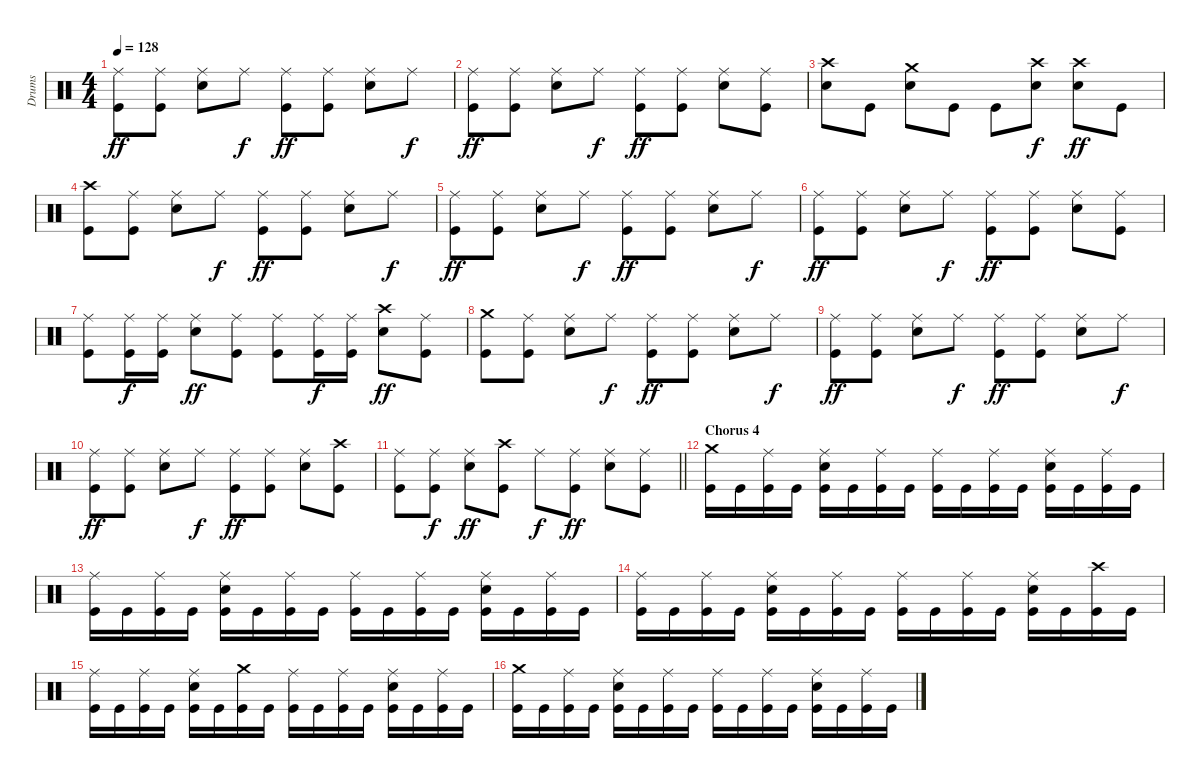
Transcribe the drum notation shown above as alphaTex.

\track ("Drums" "Drums") {instrument percussion}
\staff {score}
\articulation defaults
\ts (4 4)
\tempo 128
\clef neutral
\ks c
("Ride (middle)" "Kick (hit)").8{dy ff} ("Ride (middle)" "Kick (hit)").8 ("Ride (middle)" "Electric Snare (hit)").8 "Ride (middle)".8{dy f} ("Ride (middle)" "Kick (hit)").8{dy ff} ("Ride (middle)" "Kick (hit)").8 ("Ride (middle)" "Electric Snare (hit)").8 "Ride (middle)".8{dy f} |
("Ride (middle)" "Kick (hit)").8{dy ff} ("Ride (middle)" "Kick (hit)").8 ("Ride (middle)" "Electric Snare (hit)").8 "Ride (middle)".8{dy f} ("Ride (middle)" "Kick (hit)").8{dy ff} ("Ride (middle)" "Kick (hit)").8 ("Ride (middle)" "Electric Snare (hit)").8 ("Ride (middle)" "Kick (hit)").8 |
("Crash high (hit)" "Electric Snare (hit)").8 "Kick (hit)".8 ("Crash medium (hit)" "Electric Snare (hit)").8 "Kick (hit)".8 "Kick (hit)".8 ("Crash high (hit)" "Electric Snare (hit)").8{dy f} ("Crash high (hit)" "Electric Snare (hit)").8{dy ff} "Kick (hit)".8 |
("Crash high (hit)" "Kick (hit)").8 ("Ride (middle)" "Kick (hit)").8 ("Ride (middle)" "Electric Snare (hit)").8 "Ride (middle)".8{dy f} ("Ride (middle)" "Kick (hit)").8{dy ff} ("Ride (middle)" "Kick (hit)").8 ("Ride (middle)" "Electric Snare (hit)").8 "Ride (middle)".8{dy f} |
("Ride (middle)" "Kick (hit)").8{dy ff} ("Ride (middle)" "Kick (hit)").8 ("Ride (middle)" "Electric Snare (hit)").8 "Ride (middle)".8{dy f} ("Ride (middle)" "Kick (hit)").8{dy ff} ("Ride (middle)" "Kick (hit)").8 ("Ride (middle)" "Electric Snare (hit)").8 "Ride (middle)".8{dy f} |
("Ride (middle)" "Kick (hit)").8{dy ff} ("Ride (middle)" "Kick (hit)").8 ("Ride (middle)" "Electric Snare (hit)").8 "Ride (middle)".8{dy f} ("Ride (middle)" "Kick (hit)").8{dy ff} ("Ride (middle)" "Kick (hit)").8 ("Ride (middle)" "Electric Snare (hit)").8 ("Ride (middle)" "Kick (hit)").8 |
("Ride (middle)" "Kick (hit)").8 ("Ride (middle)" "Kick (hit)").16{dy f} ("Ride (middle)" "Kick (hit)").16 ("Ride (middle)" "Electric Snare (hit)").8{dy ff} ("Ride (middle)" "Kick (hit)").8 ("Ride (middle)" "Kick (hit)").8 ("Ride (middle)" "Kick (hit)").16{dy f} ("Ride (middle)" "Kick (hit)").16 ("Crash high (hit)" "Electric Snare (hit)").8{dy ff} ("Ride (middle)" "Kick (hit)").8 |
("Crash medium (hit)" "Kick (hit)").8 ("Ride (middle)" "Kick (hit)").8 ("Ride (middle)" "Electric Snare (hit)").8 "Ride (middle)".8{dy f} ("Ride (middle)" "Kick (hit)").8{dy ff} ("Ride (middle)" "Kick (hit)").8 ("Ride (middle)" "Electric Snare (hit)").8 "Ride (middle)".8{dy f} |
("Ride (middle)" "Kick (hit)").8{dy ff} ("Ride (middle)" "Kick (hit)").8 ("Ride (middle)" "Electric Snare (hit)").8 "Ride (middle)".8{dy f} ("Ride (middle)" "Kick (hit)").8{dy ff} ("Ride (middle)" "Kick (hit)").8 ("Ride (middle)" "Electric Snare (hit)").8 "Ride (middle)".8{dy f} |
("Ride (middle)" "Kick (hit)").8{dy ff} ("Ride (middle)" "Kick (hit)").8 ("Ride (middle)" "Electric Snare (hit)").8 "Ride (middle)".8{dy f} ("Ride (middle)" "Kick (hit)").8{dy ff} ("Ride (middle)" "Kick (hit)").8 ("Ride (middle)" "Electric Snare (hit)").8 ("Crash high (hit)" "Kick (hit)").8 |
\barLineRight lightlight
("Ride (middle)" "Kick (hit)").8 ("Ride (middle)" "Kick (hit)").8{dy f} ("Ride (middle)" "Electric Snare (hit)").8{dy ff} ("Crash high (hit)" "Kick (hit)").8 "Ride (middle)".8{dy f} ("Ride (middle)" "Kick (hit)").8{dy ff} ("Ride (middle)" "Electric Snare (hit)").8 ("Ride (middle)" "Kick (hit)").8 |
\section ("" "Chorus 4")
("Crash medium (hit)" "Kick (hit)").16 "Kick (hit)".16 ("Ride (middle)" "Kick (hit)").16 "Kick (hit)".16 ("Ride (middle)" "Electric Snare (hit)" "Kick (hit)").16 "Kick (hit)".16 ("Ride (middle)" "Kick (hit)").16 "Kick (hit)".16 ("Ride (middle)" "Kick (hit)").16 "Kick (hit)".16 ("Ride (middle)" "Kick (hit)").16 "Kick (hit)".16 ("Ride (middle)" "Electric Snare (hit)" "Kick (hit)").16 "Kick (hit)".16 ("Ride (middle)" "Kick (hit)").16 "Kick (hit)".16 |
("Ride (middle)" "Kick (hit)").16 "Kick (hit)".16 ("Ride (middle)" "Kick (hit)").16 "Kick (hit)".16 ("Ride (middle)" "Electric Snare (hit)" "Kick (hit)").16 "Kick (hit)".16 ("Ride (middle)" "Kick (hit)").16 "Kick (hit)".16 ("Ride (middle)" "Kick (hit)").16 "Kick (hit)".16 ("Ride (middle)" "Kick (hit)").16 "Kick (hit)".16 ("Ride (middle)" "Electric Snare (hit)" "Kick (hit)").16 "Kick (hit)".16 ("Ride (middle)" "Kick (hit)").16 "Kick (hit)".16 |
("Ride (middle)" "Kick (hit)").16 "Kick (hit)".16 ("Ride (middle)" "Kick (hit)").16 "Kick (hit)".16 ("Ride (middle)" "Electric Snare (hit)" "Kick (hit)").16 "Kick (hit)".16 ("Ride (middle)" "Kick (hit)").16 "Kick (hit)".16 ("Ride (middle)" "Kick (hit)").16 "Kick (hit)".16 ("Ride (middle)" "Kick (hit)").16 "Kick (hit)".16 ("Ride (middle)" "Electric Snare (hit)" "Kick (hit)").16 "Kick (hit)".16 ("Crash high (hit)" "Kick (hit)").16 "Kick (hit)".16 |
("Ride (middle)" "Kick (hit)").16 "Kick (hit)".16 ("Ride (middle)" "Kick (hit)").16 "Kick (hit)".16 ("Ride (middle)" "Electric Snare (hit)" "Kick (hit)").16 "Kick (hit)".16 ("Crash medium (hit)" "Kick (hit)").16 "Kick (hit)".16 ("Ride (middle)" "Kick (hit)").16 "Kick (hit)".16 ("Ride (middle)" "Kick (hit)").16 "Kick (hit)".16 ("Ride (middle)" "Electric Snare (hit)" "Kick (hit)").16 "Kick (hit)".16 ("Ride (middle)" "Kick (hit)").16 "Kick (hit)".16 |
("Crash medium (hit)" "Kick (hit)").16 "Kick (hit)".16 ("Ride (middle)" "Kick (hit)").16 "Kick (hit)".16 ("Ride (middle)" "Electric Snare (hit)" "Kick (hit)").16 "Kick (hit)".16 ("Ride (middle)" "Kick (hit)").16 "Kick (hit)".16 ("Ride (middle)" "Kick (hit)").16 "Kick (hit)".16 ("Ride (middle)" "Kick (hit)").16 "Kick (hit)".16 ("Ride (middle)" "Electric Snare (hit)" "Kick (hit)").16 "Kick (hit)".16 ("Ride (middle)" "Kick (hit)").16 "Kick (hit)".16
